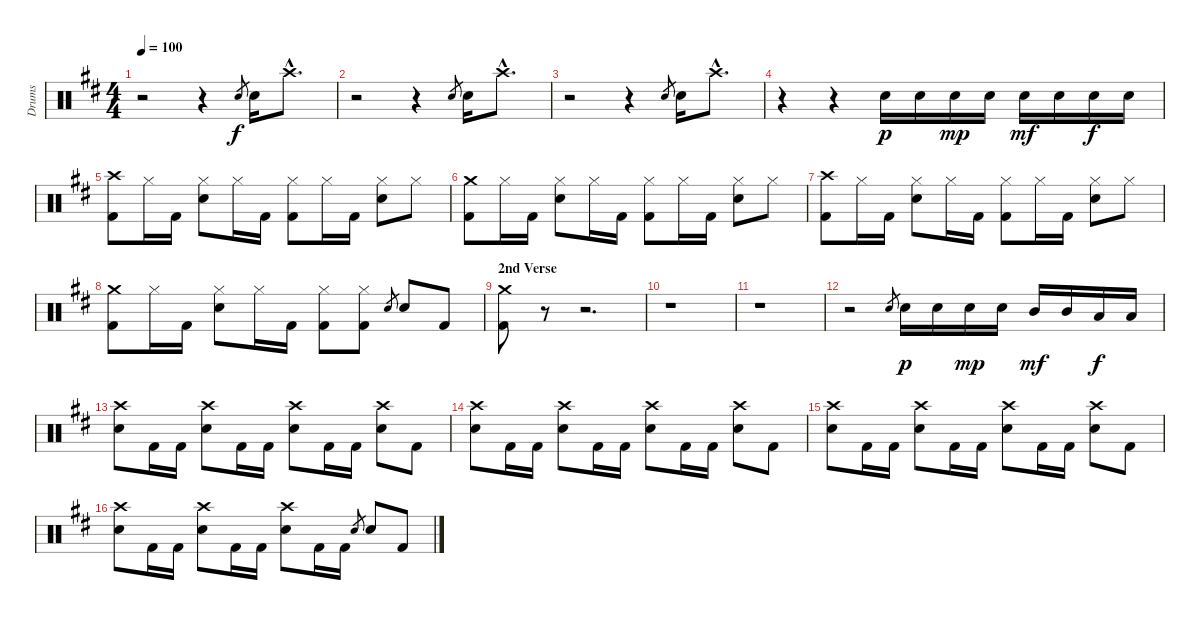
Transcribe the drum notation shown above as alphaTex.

\track ("Drums" "Drums") {instrument percussion}
\staff {score}
\articulation defaults
\ts (4 4)
\tempo 100
\clef neutral
\ks bminor
r.2{dy f} r.4 "Snare (hit) 2".8{gr} "Snare (hit) 2".16 "Crash high (hit)"{hac}.8{d} |
r.2 r.4 "Snare (hit) 2".8{gr} "Snare (hit) 2".16 "Crash high (hit)"{hac}.8{d} |
r.2 r.4 "Snare (hit) 2".8{gr} "Snare (hit) 2".16 "Crash high (hit)"{hac}.8{d} |
r.4 r.4 "Snare (hit) 2".16{dy p} "Snare (hit) 2".16 "Snare (hit) 2".16{dy mp} "Snare (hit) 2".16 "Snare (hit) 2".16{dy mf} "Snare (hit) 2".16 "Snare (hit) 2".16{dy f} "Snare (hit) 2".16 |
("Crash high (hit)" "Kick (hit) 2").8 "Hi-Hat (closed)".16 "Kick (hit) 2".16 ("Hi-Hat (closed)" "Snare (hit) 2").8 "Hi-Hat (closed)".16 "Kick (hit) 2".16 ("Hi-Hat (closed)" "Kick (hit) 2").8 "Hi-Hat (closed)".16 "Kick (hit) 2".16 ("Hi-Hat (closed)" "Snare (hit) 2").8 "Hi-Hat (closed)".8 |
("Crash medium (hit)" "Kick (hit) 2").8 "Hi-Hat (closed)".16 "Kick (hit) 2".16 ("Hi-Hat (closed)" "Snare (hit) 2").8 "Hi-Hat (closed)".16 "Kick (hit) 2".16 ("Hi-Hat (closed)" "Kick (hit) 2").8 "Hi-Hat (closed)".16 "Kick (hit) 2".16 ("Hi-Hat (closed)" "Snare (hit) 2").8 "Hi-Hat (closed)".8 |
("Crash high (hit)" "Kick (hit) 2").8 "Hi-Hat (closed)".16 "Kick (hit) 2".16 ("Hi-Hat (closed)" "Snare (hit) 2").8 "Hi-Hat (closed)".16 "Kick (hit) 2".16 ("Hi-Hat (closed)" "Kick (hit) 2").8 "Hi-Hat (closed)".16 "Kick (hit) 2".16 ("Hi-Hat (closed)" "Snare (hit) 2").8 "Hi-Hat (closed)".8 |
("Crash medium (hit)" "Kick (hit) 2").8 "Hi-Hat (closed)".16 "Kick (hit) 2".16 ("Hi-Hat (closed)" "Snare (hit) 2").8 "Hi-Hat (closed)".16 "Kick (hit) 2".16 ("Hi-Hat (closed)" "Kick (hit) 2").8 ("Hi-Hat (closed)" "Kick (hit) 2").8 "Snare (hit) 2".8{gr} "Snare (hit) 2".8 "Kick (hit) 2".8 |
\section ("" "2nd Verse")
("Crash medium (hit)" "Kick (hit) 2").8 r.8 r.2{d} |
r.1 |
r.1 |
r.2 "Snare (hit) 2".8{gr} "Snare (hit) 2".16{dy p} "Snare (hit) 2".16 "Snare (hit) 2".16{dy mp} "Snare (hit) 2".16 "Mid Tom (hit)".16{dy mf} "Mid Tom (hit)".16 "Low Tom (hit)".16{dy f} "Low Tom (hit)".16 |
("Crash high (hit)" "Snare (hit) 2").8 "Kick (hit) 2".16 "Kick (hit) 2".16 ("Crash high (hit)" "Snare (hit) 2").8 "Kick (hit) 2".16 "Kick (hit) 2".16 ("Crash high (hit)" "Snare (hit) 2").8 "Kick (hit) 2".16 "Kick (hit) 2".16 ("Crash high (hit)" "Snare (hit) 2").8 "Kick (hit) 2".8 |
("Crash high (hit)" "Snare (hit) 2").8 "Kick (hit) 2".16 "Kick (hit) 2".16 ("Crash high (hit)" "Snare (hit) 2").8 "Kick (hit) 2".16 "Kick (hit) 2".16 ("Crash high (hit)" "Snare (hit) 2").8 "Kick (hit) 2".16 "Kick (hit) 2".16 ("Crash high (hit)" "Snare (hit) 2").8 "Kick (hit) 2".8 |
("Crash high (hit)" "Snare (hit) 2").8 "Kick (hit) 2".16 "Kick (hit) 2".16 ("Crash high (hit)" "Snare (hit) 2").8 "Kick (hit) 2".16 "Kick (hit) 2".16 ("Crash high (hit)" "Snare (hit) 2").8 "Kick (hit) 2".16 "Kick (hit) 2".16 ("Crash high (hit)" "Snare (hit) 2").8 "Kick (hit) 2".8 |
("Crash high (hit)" "Snare (hit) 2").8 "Kick (hit) 2".16 "Kick (hit) 2".16 ("Crash high (hit)" "Snare (hit) 2").8 "Kick (hit) 2".16 "Kick (hit) 2".16 ("Crash high (hit)" "Snare (hit) 2").8 "Kick (hit) 2".16 "Kick (hit) 2".16 "Snare (hit) 2".8{gr} "Snare (hit) 2".8 "Kick (hit) 2".8
